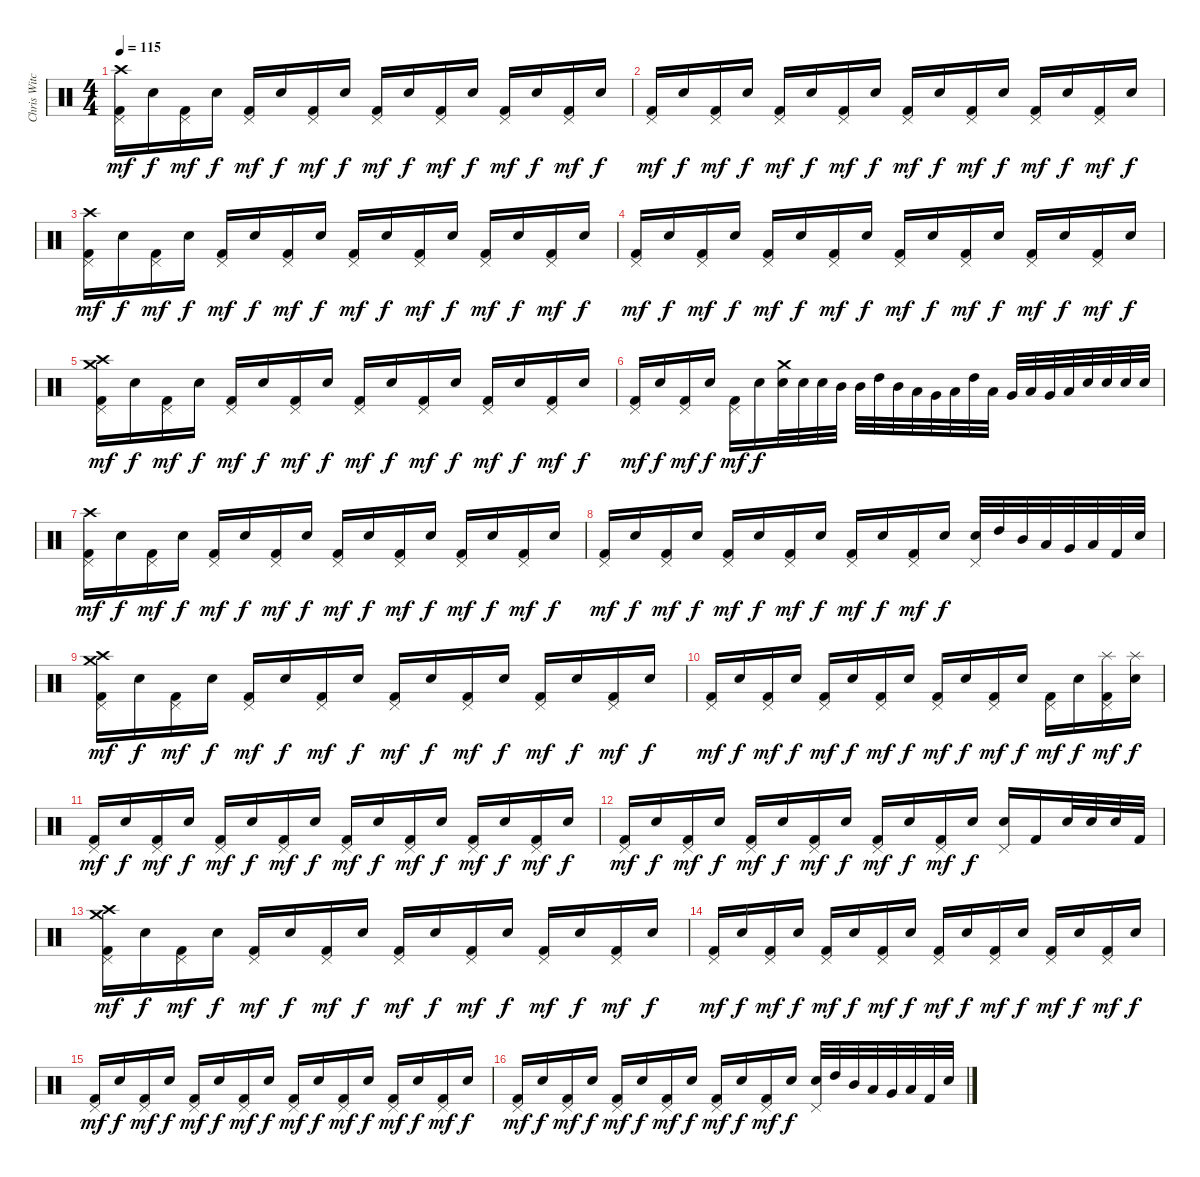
\track ("Chris Witchhunter (Drums)" "Chris Witc") {instrument percussion}
\staff {score}
\articulation defaults
\ts (4 4)
\tempo 115
\clef neutral
\ks c
("Crash high (hit)" "Pedal Hi-Hat (hit)" "Kick (hit) 2").16{dy mf} "Snare (hit) 2".16{dy f} ("Pedal Hi-Hat (hit)" "Kick (hit) 2").16{dy mf} "Snare (hit) 2".16{dy f} ("Pedal Hi-Hat (hit)" "Kick (hit) 2").16{dy mf} "Snare (hit) 2".16{dy f} ("Pedal Hi-Hat (hit)" "Kick (hit) 2").16{dy mf} "Snare (hit) 2".16{dy f} ("Pedal Hi-Hat (hit)" "Kick (hit) 2").16{dy mf} "Snare (hit) 2".16{dy f} ("Pedal Hi-Hat (hit)" "Kick (hit) 2").16{dy mf} "Snare (hit) 2".16{dy f} ("Pedal Hi-Hat (hit)" "Kick (hit) 2").16{dy mf} "Snare (hit) 2".16{dy f} ("Pedal Hi-Hat (hit)" "Kick (hit) 2").16{dy mf} "Snare (hit) 2".16{dy f} |
("Pedal Hi-Hat (hit)" "Kick (hit) 2").16{dy mf} "Snare (hit) 2".16{dy f} ("Pedal Hi-Hat (hit)" "Kick (hit) 2").16{dy mf} "Snare (hit) 2".16{dy f} ("Pedal Hi-Hat (hit)" "Kick (hit) 2").16{dy mf} "Snare (hit) 2".16{dy f} ("Pedal Hi-Hat (hit)" "Kick (hit) 2").16{dy mf} "Snare (hit) 2".16{dy f} ("Pedal Hi-Hat (hit)" "Kick (hit) 2").16{dy mf} "Snare (hit) 2".16{dy f} ("Pedal Hi-Hat (hit)" "Kick (hit) 2").16{dy mf} "Snare (hit) 2".16{dy f} ("Pedal Hi-Hat (hit)" "Kick (hit) 2").16{dy mf} "Snare (hit) 2".16{dy f} ("Pedal Hi-Hat (hit)" "Kick (hit) 2").16{dy mf} "Snare (hit) 2".16{dy f} |
("Crash high (hit)" "Pedal Hi-Hat (hit)" "Kick (hit) 2").16{dy mf} "Snare (hit) 2".16{dy f} ("Pedal Hi-Hat (hit)" "Kick (hit) 2").16{dy mf} "Snare (hit) 2".16{dy f} ("Pedal Hi-Hat (hit)" "Kick (hit) 2").16{dy mf} "Snare (hit) 2".16{dy f} ("Pedal Hi-Hat (hit)" "Kick (hit) 2").16{dy mf} "Snare (hit) 2".16{dy f} ("Pedal Hi-Hat (hit)" "Kick (hit) 2").16{dy mf} "Snare (hit) 2".16{dy f} ("Pedal Hi-Hat (hit)" "Kick (hit) 2").16{dy mf} "Snare (hit) 2".16{dy f} ("Pedal Hi-Hat (hit)" "Kick (hit) 2").16{dy mf} "Snare (hit) 2".16{dy f} ("Pedal Hi-Hat (hit)" "Kick (hit) 2").16{dy mf} "Snare (hit) 2".16{dy f} |
("Pedal Hi-Hat (hit)" "Kick (hit) 2").16{dy mf} "Snare (hit) 2".16{dy f} ("Pedal Hi-Hat (hit)" "Kick (hit) 2").16{dy mf} "Snare (hit) 2".16{dy f} ("Pedal Hi-Hat (hit)" "Kick (hit) 2").16{dy mf} "Snare (hit) 2".16{dy f} ("Pedal Hi-Hat (hit)" "Kick (hit) 2").16{dy mf} "Snare (hit) 2".16{dy f} ("Pedal Hi-Hat (hit)" "Kick (hit) 2").16{dy mf} "Snare (hit) 2".16{dy f} ("Pedal Hi-Hat (hit)" "Kick (hit) 2").16{dy mf} "Snare (hit) 2".16{dy f} ("Pedal Hi-Hat (hit)" "Kick (hit) 2").16{dy mf} "Snare (hit) 2".16{dy f} ("Pedal Hi-Hat (hit)" "Kick (hit) 2").16{dy mf} "Snare (hit) 2".16{dy f} |
("Crash high (hit)" "Crash medium (hit)" "Pedal Hi-Hat (hit)" "Kick (hit) 2").16{dy mf} "Snare (hit) 2".16{dy f} ("Pedal Hi-Hat (hit)" "Kick (hit) 2").16{dy mf} "Snare (hit) 2".16{dy f} ("Pedal Hi-Hat (hit)" "Kick (hit) 2").16{dy mf} "Snare (hit) 2".16{dy f} ("Pedal Hi-Hat (hit)" "Kick (hit) 2").16{dy mf} "Snare (hit) 2".16{dy f} ("Pedal Hi-Hat (hit)" "Kick (hit) 2").16{dy mf} "Snare (hit) 2".16{dy f} ("Pedal Hi-Hat (hit)" "Kick (hit) 2").16{dy mf} "Snare (hit) 2".16{dy f} ("Pedal Hi-Hat (hit)" "Kick (hit) 2").16{dy mf} "Snare (hit) 2".16{dy f} ("Pedal Hi-Hat (hit)" "Kick (hit) 2").16{dy mf} "Snare (hit) 2".16{dy f} |
("Pedal Hi-Hat (hit)" "Kick (hit) 2").16{dy mf} "Snare (hit) 2".16{dy f} ("Pedal Hi-Hat (hit)" "Kick (hit) 2").16{dy mf} "Snare (hit) 2".16{dy f} ("Pedal Hi-Hat (hit)" "Kick (hit) 2").16{dy mf} "Snare (hit) 2".16{dy f} ("Crash medium (hit)" "Snare (hit) 2").32 "Snare (hit) 2".32 "Snare (hit) 2".32 "Mid Tom (hit)".32 "Mid Tom (hit)".32 "High Tom (hit)".32 "Mid Tom (hit)".32 "Low Tom (hit)".32 "Very Low Tom (hit)".32 "Low Floor Tom (hit)".32 "High Tom (hit)".32 "Low Tom (hit)".32 "Very Low Tom (hit)".32 "Low Floor Tom (hit)".32 "Very Low Tom (hit)".32 "Low Floor Tom (hit)".32 "Snare (hit) 2".32 "Snare (hit) 2".32 "Snare (hit) 2".32 "Snare (hit) 2".32 |
("Crash high (hit)" "Pedal Hi-Hat (hit)" "Kick (hit) 2").16{dy mf} "Snare (hit) 2".16{dy f} ("Pedal Hi-Hat (hit)" "Kick (hit) 2").16{dy mf} "Snare (hit) 2".16{dy f} ("Pedal Hi-Hat (hit)" "Kick (hit) 2").16{dy mf} "Snare (hit) 2".16{dy f} ("Pedal Hi-Hat (hit)" "Kick (hit) 2").16{dy mf} "Snare (hit) 2".16{dy f} ("Pedal Hi-Hat (hit)" "Kick (hit) 2").16{dy mf} "Snare (hit) 2".16{dy f} ("Pedal Hi-Hat (hit)" "Kick (hit) 2").16{dy mf} "Snare (hit) 2".16{dy f} ("Pedal Hi-Hat (hit)" "Kick (hit) 2").16{dy mf} "Snare (hit) 2".16{dy f} ("Pedal Hi-Hat (hit)" "Kick (hit) 2").16{dy mf} "Snare (hit) 2".16{dy f} |
("Pedal Hi-Hat (hit)" "Kick (hit) 2").16{dy mf} "Snare (hit) 2".16{dy f} ("Pedal Hi-Hat (hit)" "Kick (hit) 2").16{dy mf} "Snare (hit) 2".16{dy f} ("Pedal Hi-Hat (hit)" "Kick (hit) 2").16{dy mf} "Snare (hit) 2".16{dy f} ("Pedal Hi-Hat (hit)" "Kick (hit) 2").16{dy mf} "Snare (hit) 2".16{dy f} ("Pedal Hi-Hat (hit)" "Kick (hit) 2").16{dy mf} "Snare (hit) 2".16{dy f} ("Pedal Hi-Hat (hit)" "Kick (hit) 2").16{dy mf} "Snare (hit) 2".16{dy f} ("Pedal Hi-Hat (hit)" "Snare (hit) 2").32 "High Tom (hit)".32 "Mid Tom (hit)".32 "Low Tom (hit)".32 "Very Low Tom (hit)".32 "Low Floor Tom (hit)".32 "Kick (hit) 2".32 "Snare (hit) 2".32 |
("Crash high (hit)" "Crash medium (hit)" "Pedal Hi-Hat (hit)" "Kick (hit) 2").16{dy mf} "Snare (hit) 2".16{dy f} ("Pedal Hi-Hat (hit)" "Kick (hit) 2").16{dy mf} "Snare (hit) 2".16{dy f} ("Pedal Hi-Hat (hit)" "Kick (hit) 2").16{dy mf} "Snare (hit) 2".16{dy f} ("Pedal Hi-Hat (hit)" "Kick (hit) 2").16{dy mf} "Snare (hit) 2".16{dy f} ("Pedal Hi-Hat (hit)" "Kick (hit) 2").16{dy mf} "Snare (hit) 2".16{dy f} ("Pedal Hi-Hat (hit)" "Kick (hit) 2").16{dy mf} "Snare (hit) 2".16{dy f} ("Pedal Hi-Hat (hit)" "Kick (hit) 2").16{dy mf} "Snare (hit) 2".16{dy f} ("Pedal Hi-Hat (hit)" "Kick (hit) 2").16{dy mf} "Snare (hit) 2".16{dy f} |
("Pedal Hi-Hat (hit)" "Kick (hit) 2").16{dy mf} "Snare (hit) 2".16{dy f} ("Pedal Hi-Hat (hit)" "Kick (hit) 2").16{dy mf} "Snare (hit) 2".16{dy f} ("Pedal Hi-Hat (hit)" "Kick (hit) 2").16{dy mf} "Snare (hit) 2".16{dy f} ("Pedal Hi-Hat (hit)" "Kick (hit) 2").16{dy mf} "Snare (hit) 2".16{dy f} ("Pedal Hi-Hat (hit)" "Kick (hit) 2").16{dy mf} "Snare (hit) 2".16{dy f} ("Pedal Hi-Hat (hit)" "Kick (hit) 2").16{dy mf} "Snare (hit) 2".16{dy f} ("Pedal Hi-Hat (hit)" "Kick (hit) 2").16{dy mf} "Snare (hit) 2".16{dy f} ("Splash (hit)" "Pedal Hi-Hat (hit)" "Kick (hit) 2").16{dy mf} ("Splash (hit)" "Snare (hit) 2").16{dy f} |
("Pedal Hi-Hat (hit)" "Kick (hit) 2").16{dy mf} "Snare (hit) 2".16{dy f} ("Pedal Hi-Hat (hit)" "Kick (hit) 2").16{dy mf} "Snare (hit) 2".16{dy f} ("Pedal Hi-Hat (hit)" "Kick (hit) 2").16{dy mf} "Snare (hit) 2".16{dy f} ("Pedal Hi-Hat (hit)" "Kick (hit) 2").16{dy mf} "Snare (hit) 2".16{dy f} ("Pedal Hi-Hat (hit)" "Kick (hit) 2").16{dy mf} "Snare (hit) 2".16{dy f} ("Pedal Hi-Hat (hit)" "Kick (hit) 2").16{dy mf} "Snare (hit) 2".16{dy f} ("Pedal Hi-Hat (hit)" "Kick (hit) 2").16{dy mf} "Snare (hit) 2".16{dy f} ("Pedal Hi-Hat (hit)" "Kick (hit) 2").16{dy mf} "Snare (hit) 2".16{dy f} |
("Pedal Hi-Hat (hit)" "Kick (hit) 2").16{dy mf} "Snare (hit) 2".16{dy f} ("Pedal Hi-Hat (hit)" "Kick (hit) 2").16{dy mf} "Snare (hit) 2".16{dy f} ("Pedal Hi-Hat (hit)" "Kick (hit) 2").16{dy mf} "Snare (hit) 2".16{dy f} ("Pedal Hi-Hat (hit)" "Kick (hit) 2").16{dy mf} "Snare (hit) 2".16{dy f} ("Pedal Hi-Hat (hit)" "Kick (hit) 2").16{dy mf} "Snare (hit) 2".16{dy f} ("Pedal Hi-Hat (hit)" "Kick (hit) 2").16{dy mf} "Snare (hit) 2".16{dy f} ("Pedal Hi-Hat (hit)" "Snare (hit) 2").16 "Kick (hit) 2".16 "Snare (hit) 2".32 "Snare (hit) 2".32 "Snare (hit) 2".32 "Kick (hit) 2".32 |
("Crash high (hit)" "Crash medium (hit)" "Pedal Hi-Hat (hit)" "Kick (hit) 2").16{dy mf} "Snare (hit) 2".16{dy f} ("Pedal Hi-Hat (hit)" "Kick (hit) 2").16{dy mf} "Snare (hit) 2".16{dy f} ("Pedal Hi-Hat (hit)" "Kick (hit) 2").16{dy mf} "Snare (hit) 2".16{dy f} ("Pedal Hi-Hat (hit)" "Kick (hit) 2").16{dy mf} "Snare (hit) 2".16{dy f} ("Pedal Hi-Hat (hit)" "Kick (hit) 2").16{dy mf} "Snare (hit) 2".16{dy f} ("Pedal Hi-Hat (hit)" "Kick (hit) 2").16{dy mf} "Snare (hit) 2".16{dy f} ("Pedal Hi-Hat (hit)" "Kick (hit) 2").16{dy mf} "Snare (hit) 2".16{dy f} ("Pedal Hi-Hat (hit)" "Kick (hit) 2").16{dy mf} "Snare (hit) 2".16{dy f} |
("Pedal Hi-Hat (hit)" "Kick (hit) 2").16{dy mf} "Snare (hit) 2".16{dy f} ("Pedal Hi-Hat (hit)" "Kick (hit) 2").16{dy mf} "Snare (hit) 2".16{dy f} ("Pedal Hi-Hat (hit)" "Kick (hit) 2").16{dy mf} "Snare (hit) 2".16{dy f} ("Pedal Hi-Hat (hit)" "Kick (hit) 2").16{dy mf} "Snare (hit) 2".16{dy f} ("Pedal Hi-Hat (hit)" "Kick (hit) 2").16{dy mf} "Snare (hit) 2".16{dy f} ("Pedal Hi-Hat (hit)" "Kick (hit) 2").16{dy mf} "Snare (hit) 2".16{dy f} ("Pedal Hi-Hat (hit)" "Kick (hit) 2").16{dy mf} "Snare (hit) 2".16{dy f} ("Pedal Hi-Hat (hit)" "Kick (hit) 2").16{dy mf} "Snare (hit) 2".16{dy f} |
("Pedal Hi-Hat (hit)" "Kick (hit) 2").16{dy mf} "Snare (hit) 2".16{dy f} ("Pedal Hi-Hat (hit)" "Kick (hit) 2").16{dy mf} "Snare (hit) 2".16{dy f} ("Pedal Hi-Hat (hit)" "Kick (hit) 2").16{dy mf} "Snare (hit) 2".16{dy f} ("Pedal Hi-Hat (hit)" "Kick (hit) 2").16{dy mf} "Snare (hit) 2".16{dy f} ("Pedal Hi-Hat (hit)" "Kick (hit) 2").16{dy mf} "Snare (hit) 2".16{dy f} ("Pedal Hi-Hat (hit)" "Kick (hit) 2").16{dy mf} "Snare (hit) 2".16{dy f} ("Pedal Hi-Hat (hit)" "Kick (hit) 2").16{dy mf} "Snare (hit) 2".16{dy f} ("Pedal Hi-Hat (hit)" "Kick (hit) 2").16{dy mf} "Snare (hit) 2".16{dy f} |
("Pedal Hi-Hat (hit)" "Kick (hit) 2").16{dy mf} "Snare (hit) 2".16{dy f} ("Pedal Hi-Hat (hit)" "Kick (hit) 2").16{dy mf} "Snare (hit) 2".16{dy f} ("Pedal Hi-Hat (hit)" "Kick (hit) 2").16{dy mf} "Snare (hit) 2".16{dy f} ("Pedal Hi-Hat (hit)" "Kick (hit) 2").16{dy mf} "Snare (hit) 2".16{dy f} ("Pedal Hi-Hat (hit)" "Kick (hit) 2").16{dy mf} "Snare (hit) 2".16{dy f} ("Pedal Hi-Hat (hit)" "Kick (hit) 2").16{dy mf} "Snare (hit) 2".16{dy f} ("Pedal Hi-Hat (hit)" "Snare (hit) 2").32 "High Tom (hit)".32 "Mid Tom (hit)".32 "Low Tom (hit)".32 "Very Low Tom (hit)".32 "Low Floor Tom (hit)".32 "Kick (hit) 2".32 "Snare (hit) 2".32
